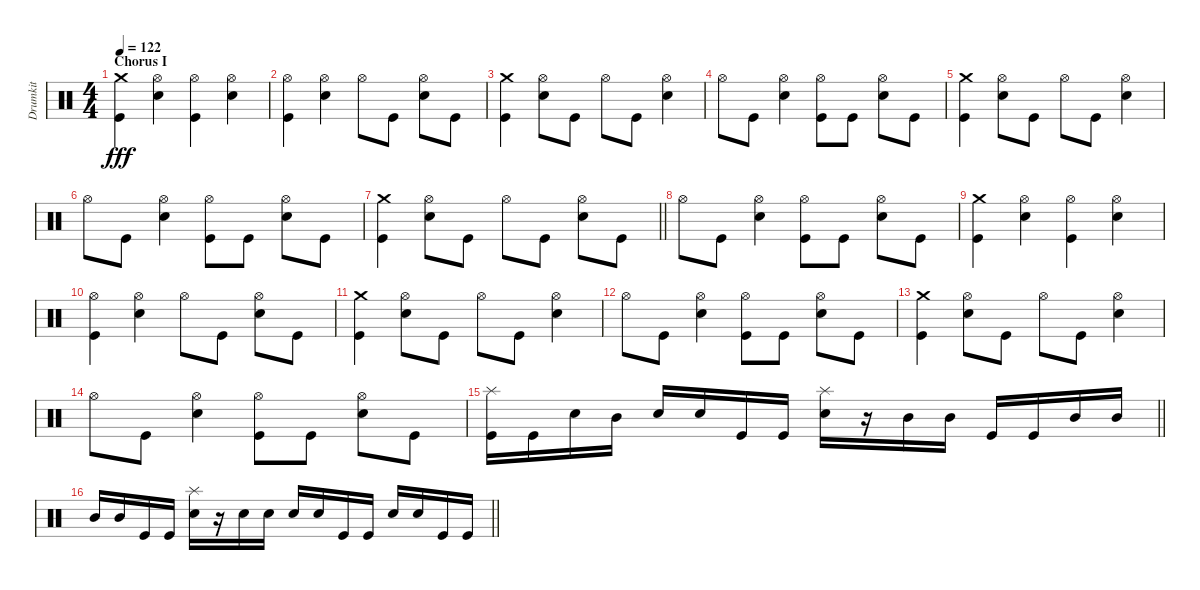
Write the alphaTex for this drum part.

\track ("Drumkit" "Drumkit") {mute instrument percussion}
\staff {score}
\articulation defaults
\ts (4 4)
\section ("" "Chorus I")
\tempo 122
\clef neutral
\ks c
("Kick (hit)" "Crash medium (hit)").4{dy fff} ("Snare (hit) 2" "Hi-Hat (open)").4 ("Kick (hit)" "Hi-Hat (open)").4 ("Snare (hit) 2" "Hi-Hat (open)").4 |
("Kick (hit)" "Hi-Hat (open)").4 ("Snare (hit) 2" "Hi-Hat (open)").4 "Hi-Hat (open)".8 "Kick (hit)".8 ("Hi-Hat (open)" "Snare (hit) 2").8 "Kick (hit)".8 |
("Kick (hit)" "Crash medium (hit)").4 ("Snare (hit) 2" "Hi-Hat (open)").8 "Kick (hit)".8 "Hi-Hat (open)".8 "Kick (hit)".8 ("Snare (hit) 2" "Hi-Hat (open)").4 |
"Hi-Hat (open)".8 "Kick (hit)".8 ("Snare (hit) 2" "Hi-Hat (open)").4 ("Hi-Hat (open)" "Kick (hit)").8 "Kick (hit)".8 ("Hi-Hat (open)" "Snare (hit) 2").8 "Kick (hit)".8 |
("Kick (hit)" "Crash medium (hit)").4 ("Snare (hit) 2" "Hi-Hat (open)").8 "Kick (hit)".8 "Hi-Hat (open)".8 "Kick (hit)".8 ("Snare (hit) 2" "Hi-Hat (open)").4 |
"Hi-Hat (open)".8 "Kick (hit)".8 ("Snare (hit) 2" "Hi-Hat (open)").4 ("Hi-Hat (open)" "Kick (hit)").8 "Kick (hit)".8 ("Hi-Hat (open)" "Snare (hit) 2").8 "Kick (hit)".8 |
\barLineRight lightlight
("Kick (hit)" "Crash medium (hit)").4 ("Snare (hit) 2" "Hi-Hat (open)").8 "Kick (hit)".8 "Hi-Hat (open)".8 "Kick (hit)".8 ("Snare (hit) 2" "Hi-Hat (open)").8 "Kick (hit)".8 |
"Hi-Hat (open)".8 "Kick (hit)".8 ("Snare (hit) 2" "Hi-Hat (open)").4 ("Hi-Hat (open)" "Kick (hit)").8 "Kick (hit)".8 ("Hi-Hat (open)" "Snare (hit) 2").8 "Kick (hit)".8 |
("Kick (hit)" "Crash medium (hit)").4 ("Snare (hit) 2" "Hi-Hat (open)").4 ("Kick (hit)" "Hi-Hat (open)").4 ("Snare (hit) 2" "Hi-Hat (open)").4 |
("Kick (hit)" "Hi-Hat (open)").4 ("Snare (hit) 2" "Hi-Hat (open)").4 "Hi-Hat (open)".8 "Kick (hit)".8 ("Hi-Hat (open)" "Snare (hit) 2").8 "Kick (hit)".8 |
("Kick (hit)" "Crash medium (hit)").4 ("Snare (hit) 2" "Hi-Hat (open)").8 "Kick (hit)".8 "Hi-Hat (open)".8 "Kick (hit)".8 ("Snare (hit) 2" "Hi-Hat (open)").4 |
"Hi-Hat (open)".8 "Kick (hit)".8 ("Snare (hit) 2" "Hi-Hat (open)").4 ("Hi-Hat (open)" "Kick (hit)").8 "Kick (hit)".8 ("Hi-Hat (open)" "Snare (hit) 2").8 "Kick (hit)".8 |
("Kick (hit)" "Crash medium (hit)").4 ("Snare (hit) 2" "Hi-Hat (open)").8 "Kick (hit)".8 "Hi-Hat (open)".8 "Kick (hit)".8 ("Snare (hit) 2" "Hi-Hat (open)").4 |
"Hi-Hat (open)".8 "Kick (hit)".8 ("Snare (hit) 2" "Hi-Hat (open)").4 ("Hi-Hat (open)" "Kick (hit)").8 "Kick (hit)".8 ("Hi-Hat (open)" "Snare (hit) 2").8 "Kick (hit)".8 |
\barLineRight lightlight
("Kick (hit)" "Splash (hit)").16 "Kick (hit)".16 "Snare (hit) 2".16 "Mid Tom (hit)".16 "Snare (hit) 2".16 "Snare (hit) 2".16 "Kick (hit)".16 "Kick (hit)".16 ("Snare (hit) 2" "Splash (hit)").16 r.16 "Mid Tom (hit)".16 "Mid Tom (hit)".16 "Kick (hit)".16 "Kick (hit)".16 "Mid Tom (hit)".16 "Mid Tom (hit)".16 |
\barLineRight lightlight "Mid Tom (hit)".16 "Mid Tom (hit)".16 "Kick (hit)".16 "Kick (hit)".16
("Snare (hit) 2" "Splash (hit)").16 r.16 "Snare (hit) 2".16 "Snare (hit) 2".16 "Snare (hit) 2".16 "Snare (hit) 2".16 "Kick (hit)".16 "Kick (hit)".16 "Snare (hit) 2".16 "Snare (hit) 2".16 "Kick (hit)".16 "Kick (hit)".16
